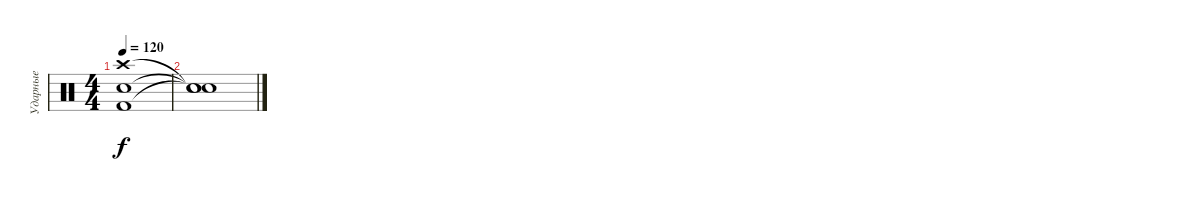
\track ("Ударные" "Ударные") {instrument percussion}
\staff {score}
\articulation defaults
\ts (4 4)
\tempo 120
\clef neutral
\ks c
("Crash high (hit)" "Electric Snare (hit)" "Kick (hit) 2").1{dy f} |
("Snare (hit)"{t} "Snare (hit)"{t} "Snare (hit)"{t}).1
